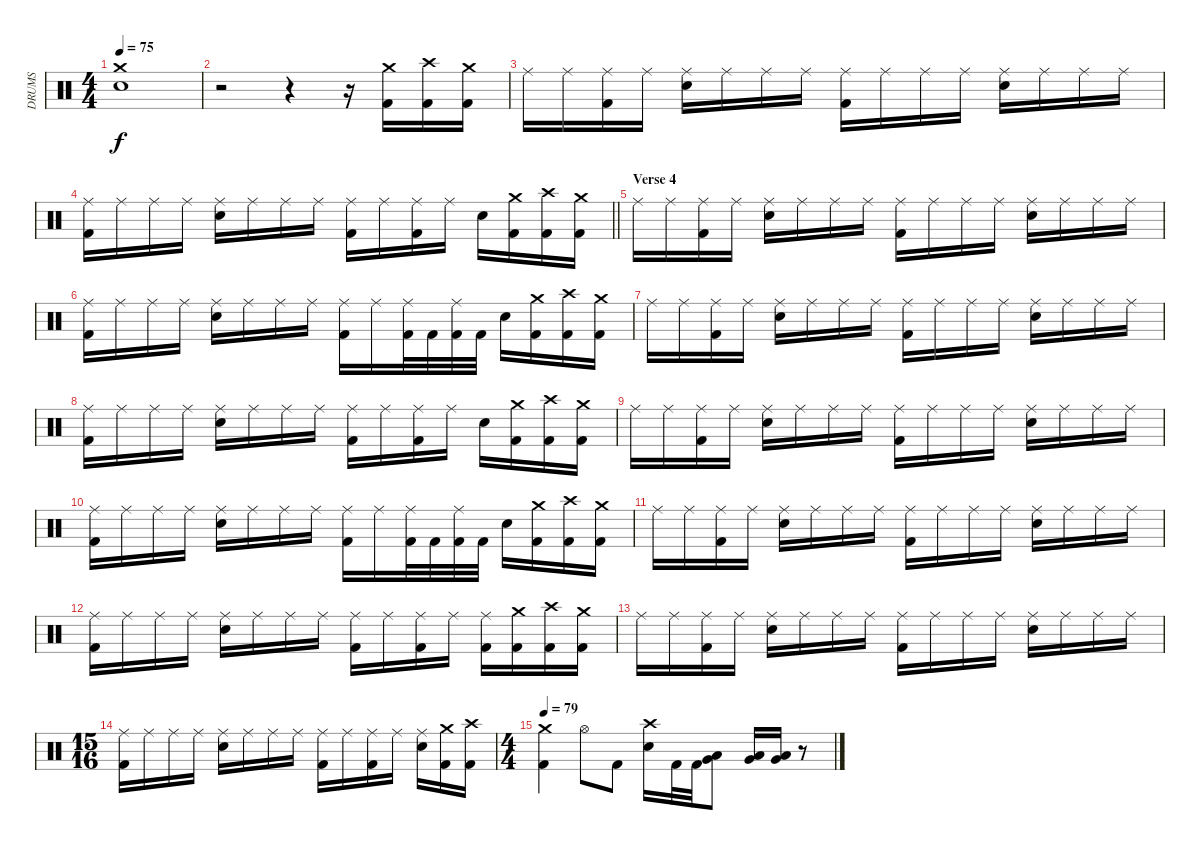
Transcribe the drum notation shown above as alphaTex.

\track ("DRUMS" "DRUMS") {instrument percussion}
\staff {score}
\articulation defaults
\ts (4 4)
\tempo 75
\clef neutral
\ks c
("Crash medium (hit)" "Snare (hit) 2").1{dy f} |
r.2 r.4 r.16 ("Crash medium (hit)" "Kick (hit) 2").16 ("Crash high (hit)" "Kick (hit) 2").16 ("Crash medium (hit)" "Kick (hit) 2").16 |
"Ride (middle)".16 "Ride (middle)".16 ("Ride (middle)" "Kick (hit) 2").16 "Ride (middle)".16 ("Ride (middle)" "Snare (hit) 2").16 "Ride (middle)".16 "Ride (middle)".16 "Ride (middle)".16 ("Ride (middle)" "Kick (hit) 2").16 "Ride (middle)".16 "Ride (middle)".16 "Ride (middle)".16 ("Ride (middle)" "Snare (hit) 2").16 "Ride (middle)".16 "Ride (middle)".16 "Ride (middle)".16 |
\barLineRight lightlight
("Ride (middle)" "Kick (hit) 2").16 "Ride (middle)".16 "Ride (middle)".16 "Ride (middle)".16 ("Ride (middle)" "Snare (hit) 2").16 "Ride (middle)".16 "Ride (middle)".16 "Ride (middle)".16 ("Ride (middle)" "Kick (hit) 2").16 "Ride (middle)".16 ("Ride (middle)" "Kick (hit) 2").16 "Ride (middle)".16 "Snare (hit) 2".16 ("Crash medium (hit)" "Kick (hit) 2").16 ("Crash high (hit)" "Kick (hit) 2").16 ("Crash medium (hit)" "Kick (hit) 2").16 |
\section ("" "Verse 4")
"Ride (middle)".16 "Ride (middle)".16 ("Ride (middle)" "Kick (hit) 2").16 "Ride (middle)".16 ("Ride (middle)" "Snare (hit) 2").16 "Ride (middle)".16 "Ride (middle)".16 "Ride (middle)".16 ("Ride (middle)" "Kick (hit) 2").16 "Ride (middle)".16 "Ride (middle)".16 "Ride (middle)".16 ("Ride (middle)" "Snare (hit) 2").16 "Ride (middle)".16 "Ride (middle)".16 "Ride (middle)".16 |
("Ride (middle)" "Kick (hit) 2").16 "Ride (middle)".16 "Ride (middle)".16 "Ride (middle)".16 ("Ride (middle)" "Snare (hit) 2").16 "Ride (middle)".16 "Ride (middle)".16 "Ride (middle)".16 ("Ride (middle)" "Kick (hit) 2").16 "Ride (middle)".16 ("Ride (middle)" "Kick (hit) 2").32 "Kick (hit) 2".32 ("Ride (middle)" "Kick (hit) 2").32 "Kick (hit) 2".32 "Snare (hit) 2".16 ("Crash medium (hit)" "Kick (hit) 2").16 ("Crash high (hit)" "Kick (hit) 2").16 ("Crash medium (hit)" "Kick (hit) 2").16 |
"Ride (middle)".16 "Ride (middle)".16 ("Ride (middle)" "Kick (hit) 2").16 "Ride (middle)".16 ("Ride (middle)" "Snare (hit) 2").16 "Ride (middle)".16 "Ride (middle)".16 "Ride (middle)".16 ("Ride (middle)" "Kick (hit) 2").16 "Ride (middle)".16 "Ride (middle)".16 "Ride (middle)".16 ("Ride (middle)" "Snare (hit) 2").16 "Ride (middle)".16 "Ride (middle)".16 "Ride (middle)".16 |
("Ride (middle)" "Kick (hit) 2").16 "Ride (middle)".16 "Ride (middle)".16 "Ride (middle)".16 ("Ride (middle)" "Snare (hit) 2").16 "Ride (middle)".16 "Ride (middle)".16 "Ride (middle)".16 ("Ride (middle)" "Kick (hit) 2").16 "Ride (middle)".16 ("Ride (middle)" "Kick (hit) 2").16 "Ride (middle)".16 "Snare (hit) 2".16 ("Crash medium (hit)" "Kick (hit) 2").16 ("Crash high (hit)" "Kick (hit) 2").16 ("Crash medium (hit)" "Kick (hit) 2").16 |
"Ride (middle)".16 "Ride (middle)".16 ("Ride (middle)" "Kick (hit) 2").16 "Ride (middle)".16 ("Ride (middle)" "Snare (hit) 2").16 "Ride (middle)".16 "Ride (middle)".16 "Ride (middle)".16 ("Ride (middle)" "Kick (hit) 2").16 "Ride (middle)".16 "Ride (middle)".16 "Ride (middle)".16 ("Ride (middle)" "Snare (hit) 2").16 "Ride (middle)".16 "Ride (middle)".16 "Ride (middle)".16 |
("Ride (middle)" "Kick (hit) 2").16 "Ride (middle)".16 "Ride (middle)".16 "Ride (middle)".16 ("Ride (middle)" "Snare (hit) 2").16 "Ride (middle)".16 "Ride (middle)".16 "Ride (middle)".16 ("Ride (middle)" "Kick (hit) 2").16 "Ride (middle)".16 ("Ride (middle)" "Kick (hit) 2").32 "Kick (hit) 2".32 ("Ride (middle)" "Kick (hit) 2").32 "Kick (hit) 2".32 "Snare (hit) 2".16 ("Crash medium (hit)" "Kick (hit) 2").16 ("Crash high (hit)" "Kick (hit) 2").16 ("Crash medium (hit)" "Kick (hit) 2").16 |
"Ride (middle)".16 "Ride (middle)".16 ("Ride (middle)" "Kick (hit) 2").16 "Ride (middle)".16 ("Ride (middle)" "Snare (hit) 2").16 "Ride (middle)".16 "Ride (middle)".16 "Ride (middle)".16 ("Ride (middle)" "Kick (hit) 2").16 "Ride (middle)".16 "Ride (middle)".16 "Ride (middle)".16 ("Ride (middle)" "Snare (hit) 2").16 "Ride (middle)".16 "Ride (middle)".16 "Ride (middle)".16 |
("Ride (middle)" "Kick (hit) 2").16 "Ride (middle)".16 "Ride (middle)".16 "Ride (middle)".16 ("Ride (middle)" "Snare (hit) 2").16 "Ride (middle)".16 "Ride (middle)".16 "Ride (middle)".16 ("Ride (middle)" "Kick (hit) 2").16 "Ride (middle)".16 ("Ride (middle)" "Kick (hit) 2").16 "Ride (middle)".16 ("Ride (middle)" "Kick (hit) 2").16 ("Crash medium (hit)" "Kick (hit) 2").16 ("Crash high (hit)" "Kick (hit) 2").16 ("Crash medium (hit)" "Kick (hit) 2").16 |
"Ride (middle)".16 "Ride (middle)".16 ("Ride (middle)" "Kick (hit) 2").16 "Ride (middle)".16 ("Ride (middle)" "Snare (hit) 2").16 "Ride (middle)".16 "Ride (middle)".16 "Ride (middle)".16 ("Ride (middle)" "Kick (hit) 2").16 "Ride (middle)".16 "Ride (middle)".16 "Ride (middle)".16 ("Ride (middle)" "Snare (hit) 2").16 "Ride (middle)".16 "Ride (middle)".16 "Ride (middle)".16 |
\ts (15 16)
("Ride (middle)" "Kick (hit) 2").16 "Ride (middle)".16 "Ride (middle)".16 "Ride (middle)".16 ("Ride (middle)" "Snare (hit) 2").16 "Ride (middle)".16 "Ride (middle)".16 "Ride (middle)".16 ("Ride (middle)" "Kick (hit) 2").16 "Ride (middle)".16 ("Ride (middle)" "Kick (hit) 2").16 "Ride (middle)".16 ("Ride (middle)" "Snare (hit) 2").16 ("Crash medium (hit)" "Kick (hit) 2").16 ("Crash high (hit)" "Kick (hit) 2").16 |
\ts (4 4)
\tempo 79
("Crash medium (hit)" "Kick (hit) 2").4 "Hi-Hat (open)".8 "Kick (hit) 2".8 ("Crash high (hit)" "Snare (hit) 2").16 "Kick (hit) 2".32 "Kick (hit) 2".32 ("Very Low Tom (hit)" "Low Floor Tom (hit)").8 ("Very Low Tom (hit)" "Low Floor Tom (hit)").16 ("Very Low Tom (hit)" "Low Floor Tom (hit)").16 r.8
